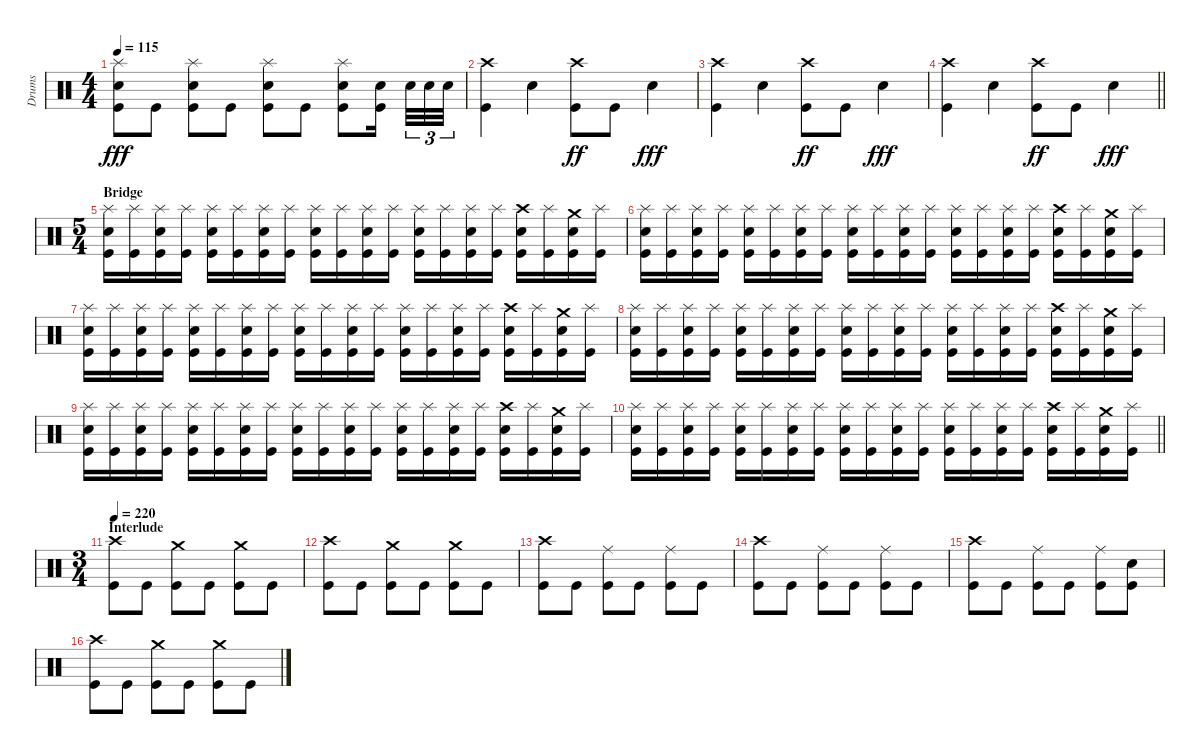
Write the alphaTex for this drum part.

\track ("Drums" "Drums") {instrument percussion}
\staff {score}
\articulation defaults
\ts (4 4)
\tempo 115
\clef neutral
\ks c
("Splash (hit)" "Electric Snare (hit)" "Kick (hit)").8{dy fff} "Kick (hit)".8 ("Splash (hit)" "Electric Snare (hit)" "Kick (hit)").8 "Kick (hit)".8 ("Splash (hit)" "Electric Snare (hit)" "Kick (hit)").8 "Kick (hit)".8 ("Splash (hit)" "Electric Snare (hit)" "Kick (hit)").8 ("Electric Snare (hit)" "Kick (hit)").16{beam splitsecondary} "Electric Snare (hit)".32{tu (3 2)} "Electric Snare (hit)".32{tu (3 2)} "Electric Snare (hit)".32{tu (3 2)} |
("Crash high (hit)" "Kick (hit)").4 "Electric Snare (hit)".4 ("Crash high (hit)" "Kick (hit)").8{dy ff} "Kick (hit)".8 "Electric Snare (hit)".4{dy fff} |
("Crash high (hit)" "Kick (hit)").4 "Electric Snare (hit)".4 ("Crash high (hit)" "Kick (hit)").8{dy ff} "Kick (hit)".8 "Electric Snare (hit)".4{dy fff} |
\barLineRight lightlight
("Crash high (hit)" "Kick (hit)").4 "Electric Snare (hit)".4 ("Crash high (hit)" "Kick (hit)").8{dy ff} "Kick (hit)".8 "Electric Snare (hit)".4{dy fff} |
\ts (5 4)
\section ("" "Bridge")
("Splash (hit)" "Electric Snare (hit)" "Kick (hit)").16 ("Splash (hit)" "Kick (hit)").16 ("Splash (hit)" "Electric Snare (hit)" "Kick (hit)").16 ("Splash (hit)" "Kick (hit)").16 ("Splash (hit)" "Electric Snare (hit)" "Kick (hit)").16 ("Splash (hit)" "Kick (hit)").16 ("Splash (hit)" "Electric Snare (hit)" "Kick (hit)").16 ("Splash (hit)" "Kick (hit)").16 ("Splash (hit)" "Electric Snare (hit)" "Kick (hit)").16 ("Splash (hit)" "Kick (hit)").16 ("Splash (hit)" "Electric Snare (hit)" "Kick (hit)").16 ("Splash (hit)" "Kick (hit)").16 ("Splash (hit)" "Electric Snare (hit)" "Kick (hit)").16 ("Splash (hit)" "Kick (hit)").16 ("Splash (hit)" "Electric Snare (hit)" "Kick (hit)").16 ("Splash (hit)" "Kick (hit)").16 ("Crash high (hit)" "Electric Snare (hit)" "Kick (hit)").16 ("Splash (hit)" "Kick (hit)").16 ("Crash medium (hit)" "Electric Snare (hit)" "Kick (hit)").16 ("Splash (hit)" "Kick (hit)").16 |
("Splash (hit)" "Electric Snare (hit)" "Kick (hit)").16 ("Splash (hit)" "Kick (hit)").16 ("Splash (hit)" "Electric Snare (hit)" "Kick (hit)").16 ("Splash (hit)" "Kick (hit)").16 ("Splash (hit)" "Electric Snare (hit)" "Kick (hit)").16 ("Splash (hit)" "Kick (hit)").16 ("Splash (hit)" "Electric Snare (hit)" "Kick (hit)").16 ("Splash (hit)" "Kick (hit)").16 ("Splash (hit)" "Electric Snare (hit)" "Kick (hit)").16 ("Splash (hit)" "Kick (hit)").16 ("Splash (hit)" "Electric Snare (hit)" "Kick (hit)").16 ("Splash (hit)" "Kick (hit)").16 ("Splash (hit)" "Electric Snare (hit)" "Kick (hit)").16 ("Splash (hit)" "Kick (hit)").16 ("Splash (hit)" "Electric Snare (hit)" "Kick (hit)").16 ("Splash (hit)" "Kick (hit)").16 ("Crash high (hit)" "Electric Snare (hit)" "Kick (hit)").16 ("Splash (hit)" "Kick (hit)").16 ("Crash medium (hit)" "Electric Snare (hit)" "Kick (hit)").16 ("Splash (hit)" "Kick (hit)").16 |
("Splash (hit)" "Electric Snare (hit)" "Kick (hit)").16 ("Splash (hit)" "Kick (hit)").16 ("Splash (hit)" "Electric Snare (hit)" "Kick (hit)").16 ("Splash (hit)" "Kick (hit)").16 ("Splash (hit)" "Electric Snare (hit)" "Kick (hit)").16 ("Splash (hit)" "Kick (hit)").16 ("Splash (hit)" "Electric Snare (hit)" "Kick (hit)").16 ("Splash (hit)" "Kick (hit)").16 ("Splash (hit)" "Electric Snare (hit)" "Kick (hit)").16 ("Splash (hit)" "Kick (hit)").16 ("Splash (hit)" "Electric Snare (hit)" "Kick (hit)").16 ("Splash (hit)" "Kick (hit)").16 ("Splash (hit)" "Electric Snare (hit)" "Kick (hit)").16 ("Splash (hit)" "Kick (hit)").16 ("Splash (hit)" "Electric Snare (hit)" "Kick (hit)").16 ("Splash (hit)" "Kick (hit)").16 ("Crash high (hit)" "Electric Snare (hit)" "Kick (hit)").16 ("Splash (hit)" "Kick (hit)").16 ("Crash medium (hit)" "Electric Snare (hit)" "Kick (hit)").16 ("Splash (hit)" "Kick (hit)").16 |
("Splash (hit)" "Electric Snare (hit)" "Kick (hit)").16 ("Splash (hit)" "Kick (hit)").16 ("Splash (hit)" "Electric Snare (hit)" "Kick (hit)").16 ("Splash (hit)" "Kick (hit)").16 ("Splash (hit)" "Electric Snare (hit)" "Kick (hit)").16 ("Splash (hit)" "Kick (hit)").16 ("Splash (hit)" "Electric Snare (hit)" "Kick (hit)").16 ("Splash (hit)" "Kick (hit)").16 ("Splash (hit)" "Electric Snare (hit)" "Kick (hit)").16 ("Splash (hit)" "Kick (hit)").16 ("Splash (hit)" "Electric Snare (hit)" "Kick (hit)").16 ("Splash (hit)" "Kick (hit)").16 ("Splash (hit)" "Electric Snare (hit)" "Kick (hit)").16 ("Splash (hit)" "Kick (hit)").16 ("Splash (hit)" "Electric Snare (hit)" "Kick (hit)").16 ("Splash (hit)" "Kick (hit)").16 ("Crash high (hit)" "Electric Snare (hit)" "Kick (hit)").16 ("Splash (hit)" "Kick (hit)").16 ("Crash medium (hit)" "Electric Snare (hit)" "Kick (hit)").16 ("Splash (hit)" "Kick (hit)").16 |
("Splash (hit)" "Electric Snare (hit)" "Kick (hit)").16 ("Splash (hit)" "Kick (hit)").16 ("Splash (hit)" "Electric Snare (hit)" "Kick (hit)").16 ("Splash (hit)" "Kick (hit)").16 ("Splash (hit)" "Electric Snare (hit)" "Kick (hit)").16 ("Splash (hit)" "Kick (hit)").16 ("Splash (hit)" "Electric Snare (hit)" "Kick (hit)").16 ("Splash (hit)" "Kick (hit)").16 ("Splash (hit)" "Electric Snare (hit)" "Kick (hit)").16 ("Splash (hit)" "Kick (hit)").16 ("Splash (hit)" "Electric Snare (hit)" "Kick (hit)").16 ("Splash (hit)" "Kick (hit)").16 ("Splash (hit)" "Electric Snare (hit)" "Kick (hit)").16 ("Splash (hit)" "Kick (hit)").16 ("Splash (hit)" "Electric Snare (hit)" "Kick (hit)").16 ("Splash (hit)" "Kick (hit)").16 ("Crash high (hit)" "Electric Snare (hit)" "Kick (hit)").16 ("Splash (hit)" "Kick (hit)").16 ("Crash medium (hit)" "Electric Snare (hit)" "Kick (hit)").16 ("Splash (hit)" "Kick (hit)").16 |
\barLineRight lightlight
("Splash (hit)" "Electric Snare (hit)" "Kick (hit)").16 ("Splash (hit)" "Kick (hit)").16 ("Splash (hit)" "Electric Snare (hit)" "Kick (hit)").16 ("Splash (hit)" "Kick (hit)").16 ("Splash (hit)" "Electric Snare (hit)" "Kick (hit)").16 ("Splash (hit)" "Kick (hit)").16 ("Splash (hit)" "Electric Snare (hit)" "Kick (hit)").16 ("Splash (hit)" "Kick (hit)").16 ("Splash (hit)" "Electric Snare (hit)" "Kick (hit)").16 ("Splash (hit)" "Kick (hit)").16 ("Splash (hit)" "Electric Snare (hit)" "Kick (hit)").16 ("Splash (hit)" "Kick (hit)").16 ("Splash (hit)" "Electric Snare (hit)" "Kick (hit)").16 ("Splash (hit)" "Kick (hit)").16 ("Splash (hit)" "Electric Snare (hit)" "Kick (hit)").16 ("Splash (hit)" "Kick (hit)").16 ("Crash high (hit)" "Electric Snare (hit)" "Kick (hit)").16 ("Splash (hit)" "Kick (hit)").16 ("Crash medium (hit)" "Electric Snare (hit)" "Kick (hit)").16 ("Splash (hit)" "Kick (hit)").16 |
\ts (3 4)
\section ("" "Interlude")
\tempo 220
("Crash high (hit)" "Kick (hit)").8 "Kick (hit)".8 ("Crash medium (hit)" "Kick (hit)").8 "Kick (hit)".8 ("Crash medium (hit)" "Kick (hit)").8 "Kick (hit)".8 |
("Crash high (hit)" "Kick (hit)").8 "Kick (hit)".8 ("Crash medium (hit)" "Kick (hit)").8 "Kick (hit)".8 ("Crash medium (hit)" "Kick (hit)").8 "Kick (hit)".8 |
("Crash high (hit)" "Kick (hit)").8 "Kick (hit)".8 ("Ride (middle)" "Kick (hit)").8 "Kick (hit)".8 ("Ride (middle)" "Kick (hit)").8 "Kick (hit)".8 |
("Crash high (hit)" "Kick (hit)").8 "Kick (hit)".8 ("Ride (middle)" "Kick (hit)").8 "Kick (hit)".8 ("Ride (middle)" "Kick (hit)").8 "Kick (hit)".8 |
("Crash high (hit)" "Kick (hit)").8 "Kick (hit)".8 ("Ride (middle)" "Kick (hit)").8 "Kick (hit)".8 ("Ride (middle)" "Kick (hit)").8 ("Electric Snare (hit)" "Kick (hit)").8 |
("Crash high (hit)" "Kick (hit)").8 "Kick (hit)".8 ("Crash medium (hit)" "Kick (hit)").8 "Kick (hit)".8 ("Crash medium (hit)" "Kick (hit)").8 "Kick (hit)".8
